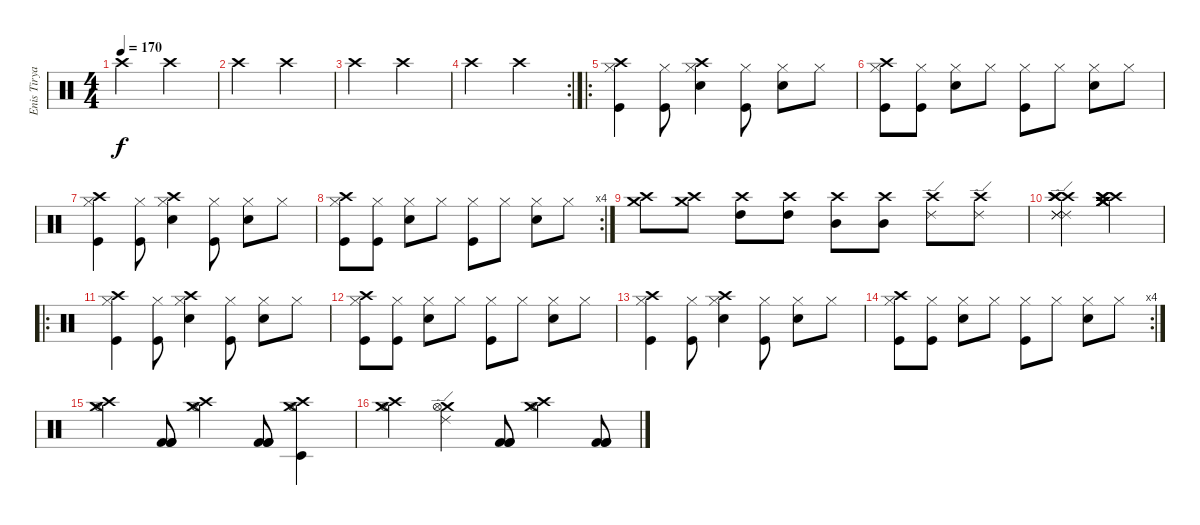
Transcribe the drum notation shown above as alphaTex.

\track ("Enis Tiryaki" "Enis Tirya") {instrument percussion}
\staff {score}
\articulation defaults
\ts (4 4)
\tempo 170
\clef neutral
\ks c "Crash high (hit)".2{dy f} "Crash high (hit)".2
|
"Crash high (hit)".2 "Crash high (hit)".2 |
"Crash high (hit)".2 "Crash high (hit)".2 |
\rc 2 "Crash high (hit)".2 "Crash high (hit)".2
|
\ro
("Crash high (hit)" "Hi-Hat (closed)" "Kick (hit)").4 ("Hi-Hat (closed)" "Kick (hit)").8 ("Crash high (hit)" "Hi-Hat (closed)" "Snare (hit) 2").4 ("Hi-Hat (closed)" "Kick (hit)").8 ("Hi-Hat (closed)" "Snare (hit) 2").8 "Hi-Hat (closed)".8 |
("Crash high (hit)" "Hi-Hat (closed)" "Kick (hit)").8 ("Hi-Hat (closed)" "Kick (hit)").8 ("Hi-Hat (closed)" "Snare (hit) 2").8 "Hi-Hat (closed)".8 ("Hi-Hat (closed)" "Kick (hit)").8 "Hi-Hat (closed)".8 ("Hi-Hat (closed)" "Snare (hit) 2").8 "Hi-Hat (closed)".8 |
("Crash high (hit)" "Hi-Hat (closed)" "Kick (hit)").4 ("Hi-Hat (closed)" "Kick (hit)").8 ("Crash high (hit)" "Hi-Hat (closed)" "Snare (hit) 2").4 ("Hi-Hat (closed)" "Kick (hit)").8 ("Hi-Hat (closed)" "Snare (hit) 2").8 "Hi-Hat (closed)".8 |
\rc 4
("Crash high (hit)" "Hi-Hat (closed)" "Kick (hit)").8 ("Hi-Hat (closed)" "Kick (hit)").8 ("Hi-Hat (closed)" "Snare (hit) 2").8 "Hi-Hat (closed)".8 ("Hi-Hat (closed)" "Kick (hit)").8 "Hi-Hat (closed)".8 ("Hi-Hat (closed)" "Snare (hit) 2").8 "Hi-Hat (closed)".8 |
("Crash medium (hit)" "Crash high (hit)").8 ("Crash medium (hit)" "Crash high (hit)").8 ("High Tom (hit)" "Crash high (hit)").8 ("High Tom (hit)" "Crash high (hit)").8 ("Mid Tom (hit)" "Crash high (hit)").8 ("Mid Tom (hit)" "Crash high (hit)").8 ("Ride (edge) 2" "Crash high (hit)").8 ("Ride (edge) 2" "Crash high (hit)").8 |
("Ride (edge) 2" "Ride (edge) 2" "Ride (edge) 2" "Crash high (hit)" "Crash high (hit)" "Crash high (hit)").2 ("Crash medium (hit)" "Crash medium (hit)" "Crash medium (hit)" "Crash high (hit)" "Crash high (hit)" "Crash high (hit)").2 |
\ro
("Crash high (hit)" "Hi-Hat (closed)" "Kick (hit)").4 ("Hi-Hat (closed)" "Kick (hit)").8 ("Crash high (hit)" "Hi-Hat (closed)" "Snare (hit) 2").4 ("Hi-Hat (closed)" "Kick (hit)").8 ("Hi-Hat (closed)" "Snare (hit) 2").8 "Hi-Hat (closed)".8 |
("Crash high (hit)" "Hi-Hat (closed)" "Kick (hit)").8 ("Hi-Hat (closed)" "Kick (hit)").8 ("Hi-Hat (closed)" "Snare (hit) 2").8 "Hi-Hat (closed)".8 ("Hi-Hat (closed)" "Kick (hit)").8 "Hi-Hat (closed)".8 ("Hi-Hat (closed)" "Snare (hit) 2").8 "Hi-Hat (closed)".8 |
("Crash high (hit)" "Hi-Hat (closed)" "Kick (hit)").4 ("Hi-Hat (closed)" "Kick (hit)").8 ("Crash high (hit)" "Hi-Hat (closed)" "Snare (hit) 2").4 ("Hi-Hat (closed)" "Kick (hit)").8 ("Hi-Hat (closed)" "Snare (hit) 2").8 "Hi-Hat (closed)".8 |
\rc 4
("Crash high (hit)" "Hi-Hat (closed)" "Kick (hit)").8 ("Hi-Hat (closed)" "Kick (hit)").8 ("Hi-Hat (closed)" "Snare (hit) 2").8 "Hi-Hat (closed)".8 ("Hi-Hat (closed)" "Kick (hit)").8 "Hi-Hat (closed)".8 ("Hi-Hat (closed)" "Snare (hit) 2").8 "Hi-Hat (closed)".8 |
("Crash high (hit)" "Crash medium (hit)" "Hi-Hat (open)").4 ("Kick (hit) 2" "Kick (hit) 2" "Kick (hit) 2").8 ("Crash high (hit)" "Crash medium (hit)" "Hi-Hat (open)").4 ("Kick (hit) 2" "Kick (hit) 2" "Kick (hit) 2").8 ("Timbale low (hit)" "Crash high (hit)" "Crash medium (hit)" "Hi-Hat (open)").4 |
("Crash high (hit)" "Crash medium (hit)" "Hi-Hat (open)").4 ("Ride (edge) 2" "Crash medium (hit)" "Hi-Hat (open)").4 ("Kick (hit) 2" "Kick (hit) 2" "Kick (hit) 2").8 ("Crash medium (hit)" "Crash high (hit)" "Hi-Hat (open)").4 ("Kick (hit) 2" "Kick (hit) 2" "Kick (hit) 2").8
